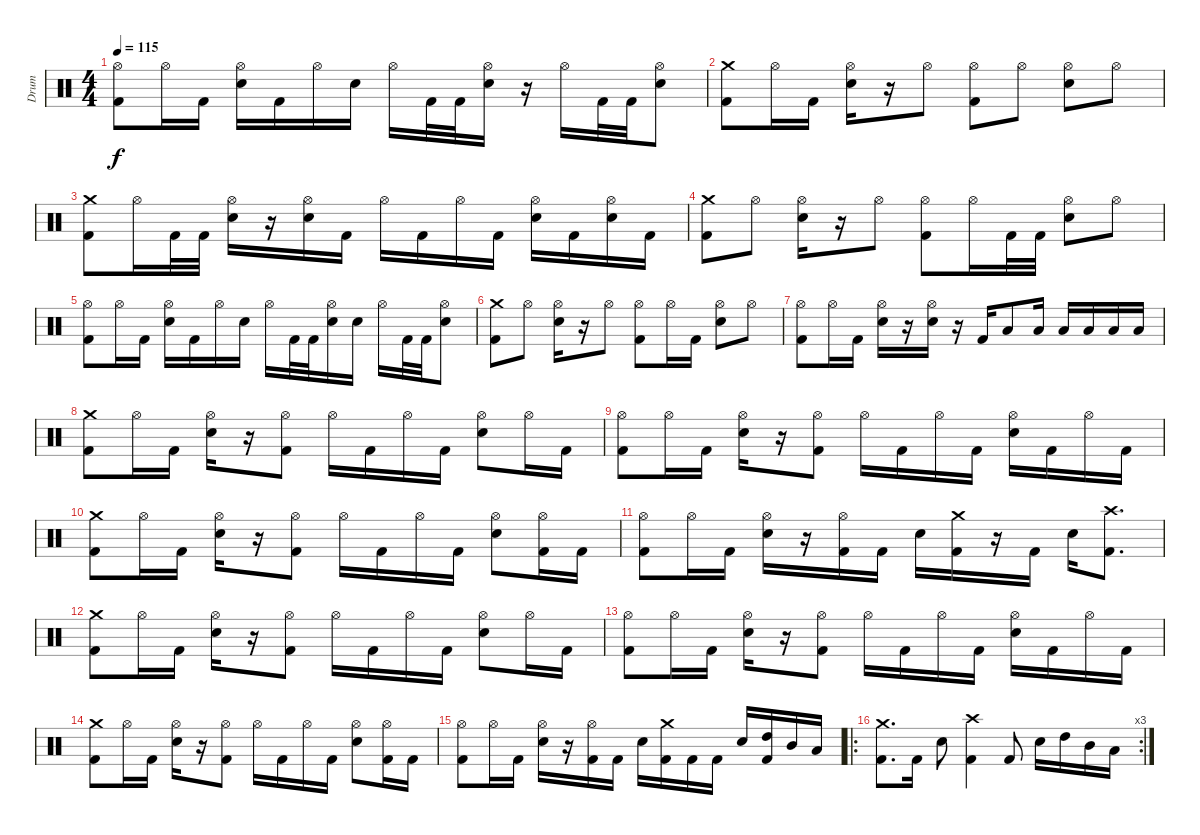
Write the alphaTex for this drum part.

\track ("Drum" "Drum") {instrument percussion}
\staff {score}
\articulation defaults
\ts (4 4)
\tempo 115
\clef neutral
\ks c
("Hi-Hat (open)" "Kick (hit) 2").8{dy f} "Hi-Hat (open)".16 "Kick (hit) 2".16 ("Hi-Hat (open)" "Electric Snare (hit)").16 "Kick (hit) 2".16 "Hi-Hat (open)".16 "Electric Snare (hit)".16 "Hi-Hat (open)".16 "Kick (hit) 2".32 "Kick (hit) 2".32 ("Hi-Hat (open)" "Electric Snare (hit)").16 r.16 "Hi-Hat (open)".16 "Kick (hit) 2".32 "Kick (hit) 2".32 ("Hi-Hat (open)" "Electric Snare (hit)").8 |
("Crash medium (hit)" "Kick (hit) 2").8 "Hi-Hat (open)".16 "Kick (hit) 2".16 ("Hi-Hat (open)" "Electric Snare (hit)").16 r.16 "Hi-Hat (open)".8 ("Hi-Hat (open)" "Kick (hit) 2").8 "Hi-Hat (open)".8 ("Hi-Hat (open)" "Electric Snare (hit)").8 "Hi-Hat (open)".8 |
("Crash medium (hit)" "Kick (hit) 2").8 "Hi-Hat (open)".16 "Kick (hit) 2".32 "Kick (hit) 2".32 ("Hi-Hat (open)" "Electric Snare (hit)").16 r.16 ("Hi-Hat (open)" "Electric Snare (hit)").16 "Kick (hit) 2".16 "Hi-Hat (open)".16 "Kick (hit) 2".16 "Hi-Hat (open)".16 "Kick (hit) 2".16 ("Hi-Hat (open)" "Electric Snare (hit)").16 "Kick (hit) 2".16 ("Hi-Hat (open)" "Electric Snare (hit)").16 "Kick (hit) 2".16 |
("Crash medium (hit)" "Kick (hit) 2").8 "Hi-Hat (open)".8 ("Hi-Hat (open)" "Electric Snare (hit)").16 r.16 "Hi-Hat (open)".8 ("Hi-Hat (open)" "Kick (hit) 2").8 "Hi-Hat (open)".16 "Kick (hit) 2".32 "Kick (hit) 2".32 ("Hi-Hat (open)" "Electric Snare (hit)").8 "Hi-Hat (open)".8 |
("Hi-Hat (open)" "Kick (hit) 2").8 "Hi-Hat (open)".16 "Kick (hit) 2".16 ("Hi-Hat (open)" "Electric Snare (hit)").16 "Kick (hit) 2".16 "Hi-Hat (open)".16 "Electric Snare (hit)".16 "Hi-Hat (open)".16 "Kick (hit) 2".32 "Kick (hit) 2".32 ("Hi-Hat (open)" "Electric Snare (hit)").16 "Electric Snare (hit)".16 "Hi-Hat (open)".16 "Kick (hit) 2".32 "Kick (hit) 2".32 ("Hi-Hat (open)" "Electric Snare (hit)").8 |
("Crash medium (hit)" "Kick (hit) 2").8 "Hi-Hat (open)".8 ("Hi-Hat (open)" "Electric Snare (hit)").16 r.16 "Hi-Hat (open)".8 ("Hi-Hat (open)" "Kick (hit) 2").8 "Hi-Hat (open)".16 "Kick (hit) 2".16 ("Hi-Hat (open)" "Electric Snare (hit)").8 "Hi-Hat (open)".8 |
("Hi-Hat (open)" "Kick (hit) 2").8 "Hi-Hat (open)".16 "Kick (hit) 2".16 ("Hi-Hat (open)" "Electric Snare (hit)").16 r.16 ("Hi-Hat (open)" "Electric Snare (hit)").16 r.16 "Kick (hit) 2".16 "Low Tom (hit)".8 "Low Tom (hit)".16 "Low Tom (hit)".16 "Low Tom (hit)".16 "Low Tom (hit)".16 "Low Tom (hit)".16 |
("Crash medium (hit)" "Kick (hit) 2").8 "Hi-Hat (open)".16 "Kick (hit) 2".16 ("Hi-Hat (open)" "Electric Snare (hit)").16 r.16 ("Hi-Hat (open)" "Kick (hit) 2").8 "Hi-Hat (open)".16 "Kick (hit) 2".16 "Hi-Hat (open)".16 "Kick (hit) 2".16 ("Hi-Hat (open)" "Electric Snare (hit)").8 "Hi-Hat (open)".16 "Kick (hit) 2".16 |
("Hi-Hat (open)" "Kick (hit) 2").8 "Hi-Hat (open)".16 "Kick (hit) 2".16 ("Hi-Hat (open)" "Electric Snare (hit)").16 r.16 ("Hi-Hat (open)" "Kick (hit) 2").8 "Hi-Hat (open)".16 "Kick (hit) 2".16 "Hi-Hat (open)".16 "Kick (hit) 2".16 ("Hi-Hat (open)" "Electric Snare (hit)").16 "Kick (hit) 2".16 "Hi-Hat (open)".16 "Kick (hit) 2".16 |
("Crash medium (hit)" "Kick (hit) 2").8 "Hi-Hat (open)".16 "Kick (hit) 2".16 ("Hi-Hat (open)" "Electric Snare (hit)").16 r.16 ("Hi-Hat (open)" "Kick (hit) 2").8 "Hi-Hat (open)".16 "Kick (hit) 2".16 "Hi-Hat (open)".16 "Kick (hit) 2".16 ("Hi-Hat (open)" "Electric Snare (hit)").8 ("Hi-Hat (open)" "Kick (hit) 2").16 "Kick (hit) 2".16 |
("Hi-Hat (open)" "Kick (hit) 2").8 "Hi-Hat (open)".16 "Kick (hit) 2".16 ("Hi-Hat (open)" "Electric Snare (hit)").16 r.16 ("Hi-Hat (open)" "Kick (hit) 2").16 "Kick (hit) 2".16 "Electric Snare (hit)".16 ("Crash medium (hit)" "Kick (hit) 2").16 r.16 "Kick (hit) 2".16 "Electric Snare (hit)".16 ("Crash high (hit)" "Kick (hit) 2").8{d} |
("Crash medium (hit)" "Kick (hit) 2").8 "Hi-Hat (open)".16 "Kick (hit) 2".16 ("Hi-Hat (open)" "Electric Snare (hit)").16 r.16 ("Hi-Hat (open)" "Kick (hit) 2").8 "Hi-Hat (open)".16 "Kick (hit) 2".16 "Hi-Hat (open)".16 "Kick (hit) 2".16 ("Hi-Hat (open)" "Electric Snare (hit)").8 "Hi-Hat (open)".16 "Kick (hit) 2".16 |
("Hi-Hat (open)" "Kick (hit) 2").8 "Hi-Hat (open)".16 "Kick (hit) 2".16 ("Hi-Hat (open)" "Electric Snare (hit)").16 r.16 ("Hi-Hat (open)" "Kick (hit) 2").8 "Hi-Hat (open)".16 "Kick (hit) 2".16 "Hi-Hat (open)".16 "Kick (hit) 2".16 ("Hi-Hat (open)" "Electric Snare (hit)").16 "Kick (hit) 2".16 "Hi-Hat (open)".16 "Kick (hit) 2".16 |
("Crash medium (hit)" "Kick (hit) 2").8 "Hi-Hat (open)".16 "Kick (hit) 2".16 ("Hi-Hat (open)" "Electric Snare (hit)").16 r.16 ("Hi-Hat (open)" "Kick (hit) 2").8 "Hi-Hat (open)".16 "Kick (hit) 2".16 "Hi-Hat (open)".16 "Kick (hit) 2".16 ("Hi-Hat (open)" "Electric Snare (hit)").8 ("Hi-Hat (open)" "Kick (hit) 2").16 "Kick (hit) 2".16 |
("Hi-Hat (open)" "Kick (hit) 2").8 "Hi-Hat (open)".16 "Kick (hit) 2".16 ("Hi-Hat (open)" "Electric Snare (hit)").16 r.16 ("Hi-Hat (open)" "Kick (hit) 2").16 "Kick (hit) 2".16 "Electric Snare (hit)".16 ("Crash medium (hit)" "Kick (hit) 2").16 "Kick (hit) 2".16 "Kick (hit) 2".16 "Electric Snare (hit)".16 ("High Tom (hit)" "Kick (hit) 2").16 "Mid Tom (hit)".16 "Low Tom (hit)".16 |
\ro
\rc 3
("Crash medium (hit)" "Kick (hit) 2").8{d} "Kick (hit) 2".16 "Snare (hit) 2".8 ("Crash high (hit)" "Kick (hit) 2").4 "Kick (hit) 2".8 "Electric Snare (hit)".16 "High Tom (hit)".16 "Mid Tom (hit)".16 "Low Tom (hit)".16
